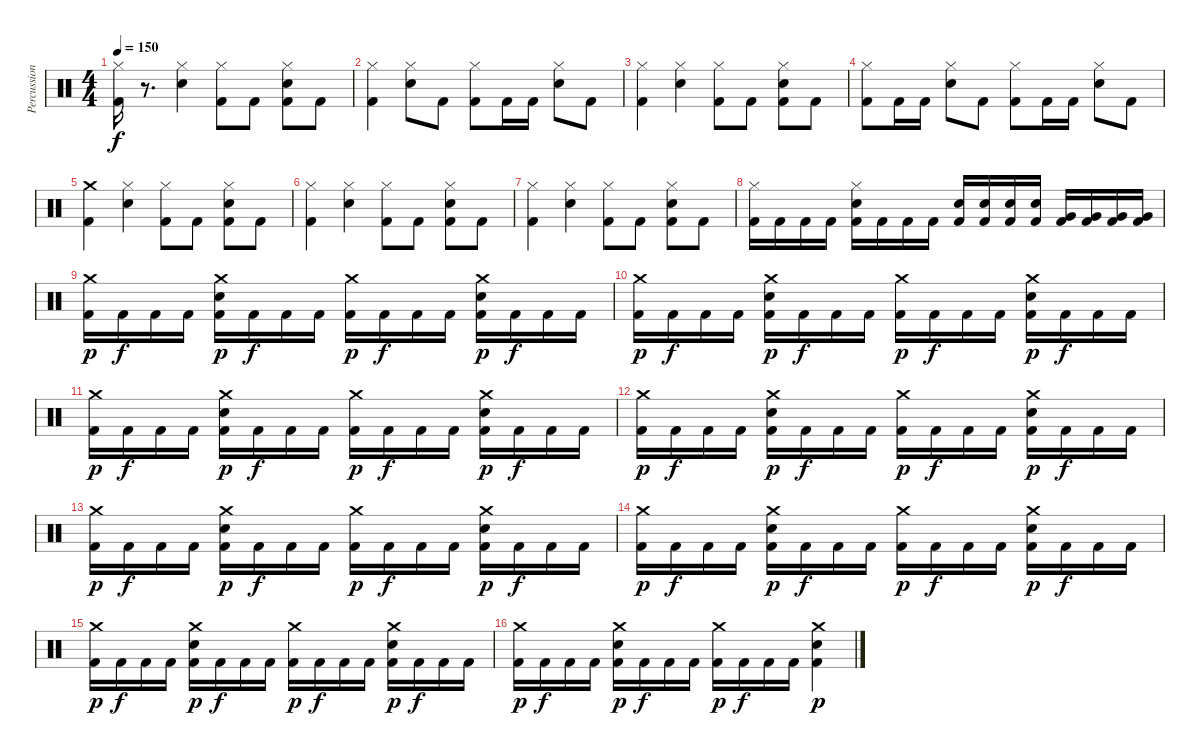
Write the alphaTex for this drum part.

\track ("Percussions" "Percussion") {instrument percussion}
\staff {score}
\articulation defaults
\ts (4 4)
\tempo 150
\clef neutral
\ks c
("Hi-Hat (closed)" "Kick (hit) 2").16{dy f} r.8{d} ("Electric Snare (hit)" "Hi-Hat (closed)").4 ("Hi-Hat (closed)" "Kick (hit) 2").8 "Kick (hit) 2".8 ("Electric Snare (hit)" "Hi-Hat (closed)" "Kick (hit) 2").8 "Kick (hit) 2".8 |
("Hi-Hat (closed)" "Kick (hit) 2").4 ("Electric Snare (hit)" "Hi-Hat (closed)").8 "Kick (hit) 2".8 ("Hi-Hat (closed)" "Kick (hit) 2").8 "Kick (hit) 2".16 "Kick (hit) 2".16 ("Electric Snare (hit)" "Hi-Hat (closed)").8 "Kick (hit) 2".8 |
("Hi-Hat (closed)" "Kick (hit) 2").4 ("Electric Snare (hit)" "Hi-Hat (closed)").4 ("Hi-Hat (closed)" "Kick (hit) 2").8 "Kick (hit) 2".8 ("Electric Snare (hit)" "Hi-Hat (closed)" "Kick (hit) 2").8 "Kick (hit) 2".8 |
("Hi-Hat (closed)" "Kick (hit) 2").8 "Kick (hit) 2".16 "Kick (hit) 2".16 ("Electric Snare (hit)" "Hi-Hat (closed)").8 "Kick (hit) 2".8 ("Hi-Hat (closed)" "Kick (hit) 2").8 "Kick (hit) 2".16 "Kick (hit) 2".16 ("Electric Snare (hit)" "Hi-Hat (closed)").8 "Kick (hit) 2".8 |
("Crash medium (hit)" "Kick (hit) 2").4 ("Electric Snare (hit)" "Hi-Hat (closed)").4 ("Hi-Hat (closed)" "Kick (hit) 2").8 "Kick (hit) 2".8 ("Electric Snare (hit)" "Hi-Hat (closed)" "Kick (hit) 2").8 "Kick (hit) 2".8 |
("Hi-Hat (closed)" "Kick (hit) 2").4 ("Electric Snare (hit)" "Hi-Hat (closed)").4 ("Hi-Hat (closed)" "Kick (hit) 2").8 "Kick (hit) 2".8 ("Electric Snare (hit)" "Hi-Hat (closed)" "Kick (hit) 2").8 "Kick (hit) 2".8 |
("Hi-Hat (closed)" "Kick (hit) 2").4 ("Electric Snare (hit)" "Hi-Hat (closed)").4 ("Hi-Hat (closed)" "Kick (hit) 2").8 "Kick (hit) 2".8 ("Electric Snare (hit)" "Hi-Hat (closed)" "Kick (hit) 2").8 "Kick (hit) 2".8 |
("Hi-Hat (closed)" "Kick (hit) 2").16 "Kick (hit) 2".16 "Kick (hit) 2".16 "Kick (hit) 2".16 ("Electric Snare (hit)" "Hi-Hat (closed)" "Kick (hit) 2").16 "Kick (hit) 2".16 "Kick (hit) 2".16 "Kick (hit) 2".16 ("Electric Snare (hit)" "Kick (hit) 2").16 ("Electric Snare (hit)" "Kick (hit) 2").16 ("Electric Snare (hit)" "Kick (hit) 2").16 ("Electric Snare (hit)" "Kick (hit) 2").16 ("Very Low Tom (hit)" "Kick (hit) 2").16 ("Very Low Tom (hit)" "Kick (hit) 2").16 ("Very Low Tom (hit)" "Kick (hit) 2").16 ("Very Low Tom (hit)" "Kick (hit) 2").16 |
("Crash medium (hit)" "Kick (hit) 2").16{dy p} "Kick (hit) 2".16{dy f} "Kick (hit) 2".16 "Kick (hit) 2".16 ("Crash medium (hit)" "Electric Snare (hit)" "Kick (hit) 2").16{dy p} "Kick (hit) 2".16{dy f} "Kick (hit) 2".16 "Kick (hit) 2".16 ("Crash medium (hit)" "Kick (hit) 2").16{dy p} "Kick (hit) 2".16{dy f} "Kick (hit) 2".16 "Kick (hit) 2".16 ("Crash medium (hit)" "Electric Snare (hit)" "Kick (hit) 2").16{dy p} "Kick (hit) 2".16{dy f} "Kick (hit) 2".16 "Kick (hit) 2".16 |
("Crash medium (hit)" "Kick (hit) 2").16{dy p} "Kick (hit) 2".16{dy f} "Kick (hit) 2".16 "Kick (hit) 2".16 ("Crash medium (hit)" "Electric Snare (hit)" "Kick (hit) 2").16{dy p} "Kick (hit) 2".16{dy f} "Kick (hit) 2".16 "Kick (hit) 2".16 ("Crash medium (hit)" "Kick (hit) 2").16{dy p} "Kick (hit) 2".16{dy f} "Kick (hit) 2".16 "Kick (hit) 2".16 ("Crash medium (hit)" "Electric Snare (hit)" "Kick (hit) 2").16{dy p} "Kick (hit) 2".16{dy f} "Kick (hit) 2".16 "Kick (hit) 2".16 |
("Crash medium (hit)" "Kick (hit) 2").16{dy p} "Kick (hit) 2".16{dy f} "Kick (hit) 2".16 "Kick (hit) 2".16 ("Crash medium (hit)" "Electric Snare (hit)" "Kick (hit) 2").16{dy p} "Kick (hit) 2".16{dy f} "Kick (hit) 2".16 "Kick (hit) 2".16 ("Crash medium (hit)" "Kick (hit) 2").16{dy p} "Kick (hit) 2".16{dy f} "Kick (hit) 2".16 "Kick (hit) 2".16 ("Crash medium (hit)" "Electric Snare (hit)" "Kick (hit) 2").16{dy p} "Kick (hit) 2".16{dy f} "Kick (hit) 2".16 "Kick (hit) 2".16 |
("Crash medium (hit)" "Kick (hit) 2").16{dy p} "Kick (hit) 2".16{dy f} "Kick (hit) 2".16 "Kick (hit) 2".16 ("Crash medium (hit)" "Electric Snare (hit)" "Kick (hit) 2").16{dy p} "Kick (hit) 2".16{dy f} "Kick (hit) 2".16 "Kick (hit) 2".16 ("Crash medium (hit)" "Kick (hit) 2").16{dy p} "Kick (hit) 2".16{dy f} "Kick (hit) 2".16 "Kick (hit) 2".16 ("Crash medium (hit)" "Electric Snare (hit)" "Kick (hit) 2").16{dy p} "Kick (hit) 2".16{dy f} "Kick (hit) 2".16 "Kick (hit) 2".16 |
("Crash medium (hit)" "Kick (hit) 2").16{dy p} "Kick (hit) 2".16{dy f} "Kick (hit) 2".16 "Kick (hit) 2".16 ("Crash medium (hit)" "Electric Snare (hit)" "Kick (hit) 2").16{dy p} "Kick (hit) 2".16{dy f} "Kick (hit) 2".16 "Kick (hit) 2".16 ("Crash medium (hit)" "Kick (hit) 2").16{dy p} "Kick (hit) 2".16{dy f} "Kick (hit) 2".16 "Kick (hit) 2".16 ("Crash medium (hit)" "Electric Snare (hit)" "Kick (hit) 2").16{dy p} "Kick (hit) 2".16{dy f} "Kick (hit) 2".16 "Kick (hit) 2".16 |
("Crash medium (hit)" "Kick (hit) 2").16{dy p} "Kick (hit) 2".16{dy f} "Kick (hit) 2".16 "Kick (hit) 2".16 ("Crash medium (hit)" "Electric Snare (hit)" "Kick (hit) 2").16{dy p} "Kick (hit) 2".16{dy f} "Kick (hit) 2".16 "Kick (hit) 2".16 ("Crash medium (hit)" "Kick (hit) 2").16{dy p} "Kick (hit) 2".16{dy f} "Kick (hit) 2".16 "Kick (hit) 2".16 ("Crash medium (hit)" "Electric Snare (hit)" "Kick (hit) 2").16{dy p} "Kick (hit) 2".16{dy f} "Kick (hit) 2".16 "Kick (hit) 2".16 |
("Crash medium (hit)" "Kick (hit) 2").16{dy p} "Kick (hit) 2".16{dy f} "Kick (hit) 2".16 "Kick (hit) 2".16 ("Crash medium (hit)" "Electric Snare (hit)" "Kick (hit) 2").16{dy p} "Kick (hit) 2".16{dy f} "Kick (hit) 2".16 "Kick (hit) 2".16 ("Crash medium (hit)" "Kick (hit) 2").16{dy p} "Kick (hit) 2".16{dy f} "Kick (hit) 2".16 "Kick (hit) 2".16 ("Crash medium (hit)" "Electric Snare (hit)" "Kick (hit) 2").16{dy p} "Kick (hit) 2".16{dy f} "Kick (hit) 2".16 "Kick (hit) 2".16 |
("Crash medium (hit)" "Kick (hit) 2").16{dy p} "Kick (hit) 2".16{dy f} "Kick (hit) 2".16 "Kick (hit) 2".16 ("Crash medium (hit)" "Electric Snare (hit)" "Kick (hit) 2").16{dy p} "Kick (hit) 2".16{dy f} "Kick (hit) 2".16 "Kick (hit) 2".16 ("Crash medium (hit)" "Kick (hit) 2").16{dy p} "Kick (hit) 2".16{dy f} "Kick (hit) 2".16 "Kick (hit) 2".16 ("Crash medium (hit)" "Electric Snare (hit)" "Kick (hit) 2").4{dy p}
